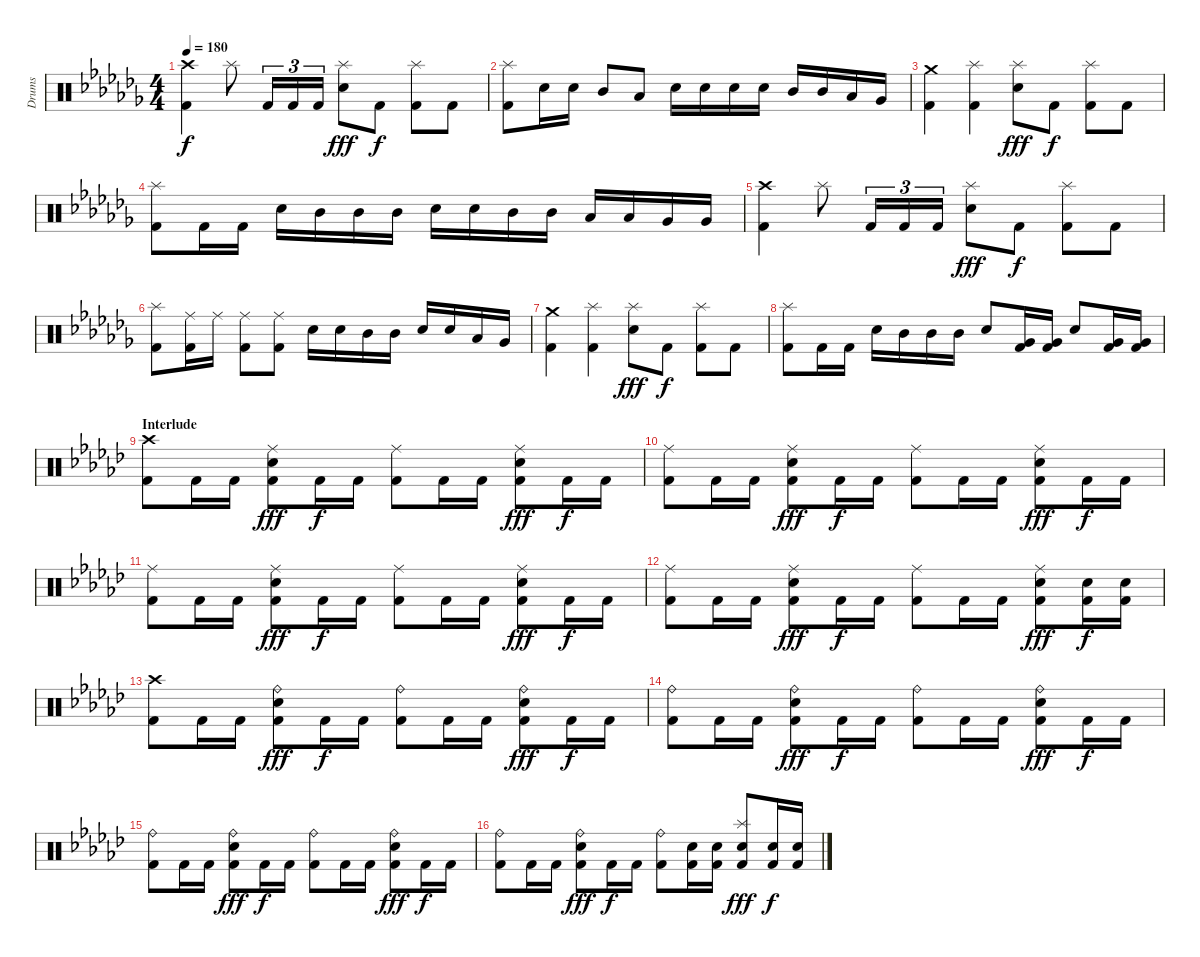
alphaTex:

\track ("Drums" "Drums") {instrument percussion}
\staff {score}
\articulation defaults
\ts (4 4)
\tempo 180
\clef neutral
\ks abminor
("Crash high (hit)" "Kick (hit) 2").4{dy f} "Splash (hit)".8 "Kick (hit) 2".16{tu (3 2)} "Kick (hit) 2".16{tu (3 2)} "Kick (hit) 2".16{tu (3 2)} ("Splash (hit)" "Snare (hit) 2").8{dy fff} "Kick (hit) 2".8{dy f} ("Splash (hit)" "Kick (hit) 2").8 "Kick (hit) 2".8 |
("Splash (hit)" "Kick (hit) 2").8 "Snare (hit) 2".16 "Snare (hit) 2".16 "Mid Tom (hit)".8 "Low Tom (hit)".8 "Snare (hit) 2".16 "Snare (hit) 2".16 "Snare (hit) 2".16 "Snare (hit) 2".16 "Mid Tom (hit)".16 "Mid Tom (hit)".16 "Low Tom (hit)".16 "Very Low Tom (hit)".16 |
("Crash medium (hit)" "Kick (hit) 2").4 ("Splash (hit)" "Kick (hit) 2").4 ("Splash (hit)" "Snare (hit) 2").8{dy fff} "Kick (hit) 2".8{dy f} ("Splash (hit)" "Kick (hit) 2").8 "Kick (hit) 2".8 |
("Splash (hit)" "Kick (hit) 2").8 "Kick (hit) 2".16 "Kick (hit) 2".16 "Snare (hit) 2".16 "Mid Tom (hit)".16 "Mid Tom (hit)".16 "Mid Tom (hit)".16 "Snare (hit) 2".16 "Snare (hit) 2".16 "Mid Tom (hit)".16 "Mid Tom (hit)".16 "Low Tom (hit)".16 "Low Tom (hit)".16 "Very Low Tom (hit)".16 "Very Low Tom (hit)".16 |
("Crash high (hit)" "Kick (hit) 2").4 "Splash (hit)".8 "Kick (hit) 2".16{tu (3 2)} "Kick (hit) 2".16{tu (3 2)} "Kick (hit) 2".16{tu (3 2)} ("Splash (hit)" "Snare (hit) 2").8{dy fff} "Kick (hit) 2".8{dy f} ("Splash (hit)" "Kick (hit) 2").8 "Kick (hit) 2".8 |
("Splash (hit)" "Kick (hit) 2").8 ("Ride (middle)" "Kick (hit) 2").16 "Ride (middle)".16 ("Ride (middle)" "Kick (hit) 2").8 ("Ride (middle)" "Kick (hit) 2").8 "Snare (hit) 2".16 "Snare (hit) 2".16 "Mid Tom (hit)".16 "Mid Tom (hit)".16 "Snare (hit) 2".16 "Snare (hit) 2".16 "Low Tom (hit)".16 "Very Low Tom (hit)".16 |
("Crash medium (hit)" "Kick (hit) 2").4 ("Splash (hit)" "Kick (hit) 2").4 ("Splash (hit)" "Snare (hit) 2").8{dy fff} "Kick (hit) 2".8{dy f} ("Splash (hit)" "Kick (hit) 2").8 "Kick (hit) 2".8 |
("Splash (hit)" "Kick (hit) 2").8 "Kick (hit) 2".16 "Kick (hit) 2".16 "Snare (hit) 2".16 "Mid Tom (hit)".16 "Mid Tom (hit)".16 "Mid Tom (hit)".16 "Snare (hit) 2".8 ("Very Low Tom (hit)" "Kick (hit) 2").16 ("Very Low Tom (hit)" "Kick (hit) 2").16 "Snare (hit) 2".8 ("Very Low Tom (hit)" "Kick (hit) 2").16 ("Very Low Tom (hit)" "Kick (hit) 2").16 |
\section ("" "Interlude")
\ks ebminor
("Crash high (hit)" "Kick (hit) 2").8 "Kick (hit) 2".16 "Kick (hit) 2".16 ("Ride (middle)" "Snare (hit) 2" "Kick (hit) 2").8{dy fff} "Kick (hit) 2".16{dy f} "Kick (hit) 2".16 ("Ride (middle)" "Kick (hit) 2").8 "Kick (hit) 2".16 "Kick (hit) 2".16 ("Ride (middle)" "Snare (hit) 2" "Kick (hit) 2").8{dy fff} "Kick (hit) 2".16{dy f} "Kick (hit) 2".16 |
("Ride (middle)" "Kick (hit) 2").8 "Kick (hit) 2".16 "Kick (hit) 2".16 ("Ride (middle)" "Snare (hit) 2" "Kick (hit) 2").8{dy fff} "Kick (hit) 2".16{dy f} "Kick (hit) 2".16 ("Ride (middle)" "Kick (hit) 2").8 "Kick (hit) 2".16 "Kick (hit) 2".16 ("Ride (middle)" "Snare (hit) 2" "Kick (hit) 2").8{dy fff} "Kick (hit) 2".16{dy f} "Kick (hit) 2".16 |
("Ride (middle)" "Kick (hit) 2").8 "Kick (hit) 2".16 "Kick (hit) 2".16 ("Ride (middle)" "Snare (hit) 2" "Kick (hit) 2").8{dy fff} "Kick (hit) 2".16{dy f} "Kick (hit) 2".16 ("Ride (middle)" "Kick (hit) 2").8 "Kick (hit) 2".16 "Kick (hit) 2".16 ("Ride (middle)" "Snare (hit) 2" "Kick (hit) 2").8{dy fff} "Kick (hit) 2".16{dy f} "Kick (hit) 2".16 |
("Ride (middle)" "Kick (hit) 2").8 "Kick (hit) 2".16 "Kick (hit) 2".16 ("Ride (middle)" "Snare (hit) 2" "Kick (hit) 2").8{dy fff} "Kick (hit) 2".16{dy f} "Kick (hit) 2".16 ("Ride (middle)" "Kick (hit) 2").8 "Kick (hit) 2".16 "Kick (hit) 2".16 ("Ride (middle)" "Snare (hit) 2" "Kick (hit) 2").8{dy fff} ("Snare (hit) 2" "Kick (hit) 2").16{dy f} ("Snare (hit) 2" "Kick (hit) 2").16 |
("Crash high (hit)" "Kick (hit) 2").8 "Kick (hit) 2".16 "Kick (hit) 2".16 ("Ride (bell)" "Snare (hit) 2" "Kick (hit) 2").8{dy fff} "Kick (hit) 2".16{dy f} "Kick (hit) 2".16 ("Ride (bell)" "Kick (hit) 2").8 "Kick (hit) 2".16 "Kick (hit) 2".16 ("Ride (bell)" "Snare (hit) 2" "Kick (hit) 2").8{dy fff} "Kick (hit) 2".16{dy f} "Kick (hit) 2".16 |
("Ride (bell)" "Kick (hit) 2").8 "Kick (hit) 2".16 "Kick (hit) 2".16 ("Ride (bell)" "Snare (hit) 2" "Kick (hit) 2").8{dy fff} "Kick (hit) 2".16{dy f} "Kick (hit) 2".16 ("Ride (bell)" "Kick (hit) 2").8 "Kick (hit) 2".16 "Kick (hit) 2".16 ("Ride (bell)" "Snare (hit) 2" "Kick (hit) 2").8{dy fff} "Kick (hit) 2".16{dy f} "Kick (hit) 2".16 |
("Ride (bell)" "Kick (hit) 2").8 "Kick (hit) 2".16 "Kick (hit) 2".16 ("Ride (bell)" "Snare (hit) 2" "Kick (hit) 2").8{dy fff} "Kick (hit) 2".16{dy f} "Kick (hit) 2".16 ("Ride (bell)" "Kick (hit) 2").8 "Kick (hit) 2".16 "Kick (hit) 2".16 ("Ride (bell)" "Snare (hit) 2" "Kick (hit) 2").8{dy fff} "Kick (hit) 2".16{dy f} "Kick (hit) 2".16 |
("Ride (bell)" "Kick (hit) 2").8 "Kick (hit) 2".16 "Kick (hit) 2".16 ("Ride (bell)" "Snare (hit) 2" "Kick (hit) 2").8{dy fff} "Kick (hit) 2".16{dy f} "Kick (hit) 2".16 ("Ride (bell)" "Kick (hit) 2").8 ("Snare (hit) 2" "Kick (hit) 2").16 ("Snare (hit) 2" "Kick (hit) 2").16 ("Splash (hit)" "Snare (hit) 2" "Kick (hit) 2").8{dy fff} ("Snare (hit) 2" "Kick (hit) 2").16{dy f} ("Snare (hit) 2" "Kick (hit) 2").16
